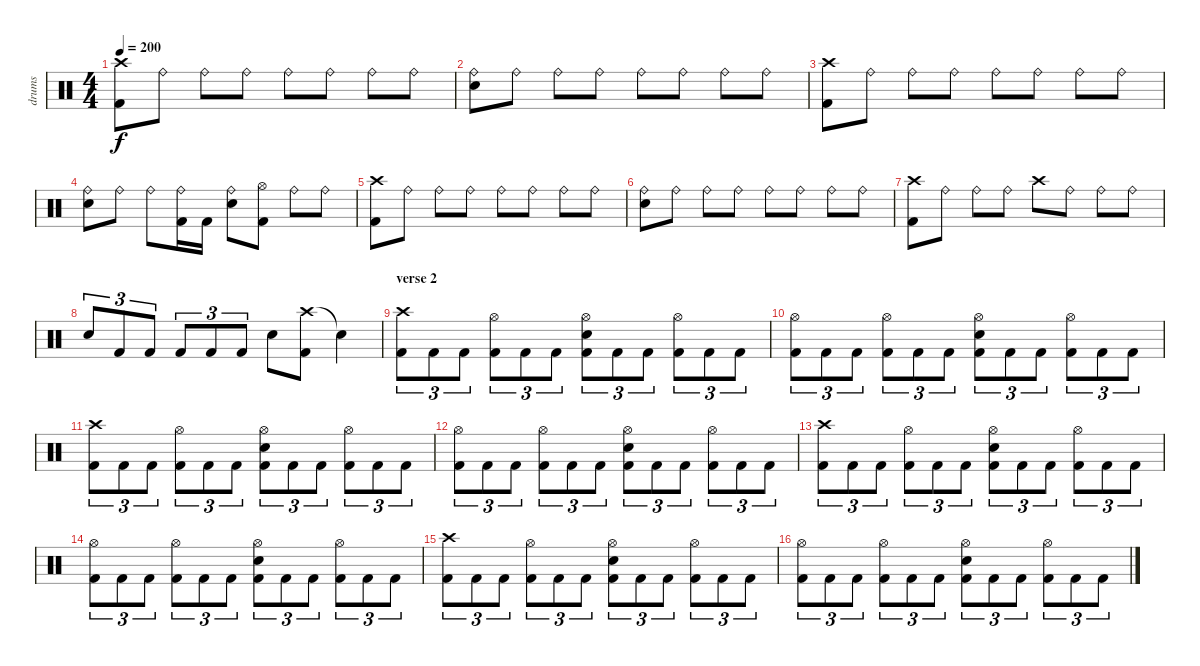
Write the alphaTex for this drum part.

\track ("drums" "drums") {instrument percussion}
\staff {score}
\articulation defaults
\ts (4 4)
\tempo 200
\clef neutral
\ks c
("Crash high (hit)" "Kick (hit) 2").8{dy f} "Ride (bell)".8 "Ride (bell)".8 "Ride (bell)".8 "Ride (bell)".8 "Ride (bell)".8 "Ride (bell)".8 "Ride (bell)".8 |
("Ride (bell)" "Electric Snare (hit)").8 "Ride (bell)".8 "Ride (bell)".8 "Ride (bell)".8 "Ride (bell)".8 "Ride (bell)".8 "Ride (bell)".8 "Ride (bell)".8 |
("Crash high (hit)" "Kick (hit) 2").8 "Ride (bell)".8 "Ride (bell)".8 "Ride (bell)".8 "Ride (bell)".8 "Ride (bell)".8 "Ride (bell)".8 "Ride (bell)".8 |
("Ride (bell)" "Electric Snare (hit)").8 "Ride (bell)".8 "Ride (bell)".8 ("Ride (bell)" "Kick (hit) 2").16 "Kick (hit) 2".16 ("Ride (bell)" "Electric Snare (hit)").8 ("Hi-Hat (open)" "Kick (hit) 2").8 "Ride (bell)".8 "Ride (bell)".8 |
("Crash high (hit)" "Kick (hit) 2").8 "Ride (bell)".8 "Ride (bell)".8 "Ride (bell)".8 "Ride (bell)".8 "Ride (bell)".8 "Ride (bell)".8 "Ride (bell)".8 |
("Ride (bell)" "Electric Snare (hit)").8 "Ride (bell)".8 "Ride (bell)".8 "Ride (bell)".8 "Ride (bell)".8 "Ride (bell)".8 "Ride (bell)".8 "Ride (bell)".8 |
("Crash high (hit)" "Kick (hit) 2").8 "Ride (bell)".8 "Ride (bell)".8 "Ride (bell)".8 "Crash high (hit)".8 "Ride (bell)".8 "Ride (bell)".8 "Ride (bell)".8 |
"Electric Snare (hit)".8{tu (3 2)} "Kick (hit) 2".8{tu (3 2)} "Kick (hit) 2".8{tu (3 2)} "Kick (hit) 2".8{tu (3 2)} "Kick (hit) 2".8{tu (3 2)} "Kick (hit) 2".8{tu (3 2)} "Electric Snare (hit)".8 ("Crash high (hit)" "Kick (hit) 2").8 "Snare (hit)"{t}.4 |
\section ("" "verse 2")
("Crash high (hit)" "Kick (hit) 2").8{tu (3 2)} "Kick (hit) 2".8{tu (3 2)} "Kick (hit) 2".8{tu (3 2)} ("Hi-Hat (open)" "Kick (hit) 2").8{tu (3 2)} "Kick (hit) 2".8{tu (3 2)} "Kick (hit) 2".8{tu (3 2)} ("Hi-Hat (open)" "Electric Snare (hit)" "Kick (hit) 2").8{tu (3 2)} "Kick (hit) 2".8{tu (3 2)} "Kick (hit) 2".8{tu (3 2)} ("Hi-Hat (open)" "Kick (hit) 2").8{tu (3 2)} "Kick (hit) 2".8{tu (3 2)} "Kick (hit) 2".8{tu (3 2)} |
("Hi-Hat (open)" "Kick (hit) 2").8{tu (3 2)} "Kick (hit) 2".8{tu (3 2)} "Kick (hit) 2".8{tu (3 2)} ("Hi-Hat (open)" "Kick (hit) 2").8{tu (3 2)} "Kick (hit) 2".8{tu (3 2)} "Kick (hit) 2".8{tu (3 2)} ("Hi-Hat (open)" "Electric Snare (hit)" "Kick (hit) 2").8{tu (3 2)} "Kick (hit) 2".8{tu (3 2)} "Kick (hit) 2".8{tu (3 2)} ("Hi-Hat (open)" "Kick (hit) 2").8{tu (3 2)} "Kick (hit) 2".8{tu (3 2)} "Kick (hit) 2".8{tu (3 2)} |
("Crash high (hit)" "Kick (hit) 2").8{tu (3 2)} "Kick (hit) 2".8{tu (3 2)} "Kick (hit) 2".8{tu (3 2)} ("Hi-Hat (open)" "Kick (hit) 2").8{tu (3 2)} "Kick (hit) 2".8{tu (3 2)} "Kick (hit) 2".8{tu (3 2)} ("Hi-Hat (open)" "Electric Snare (hit)" "Kick (hit) 2").8{tu (3 2)} "Kick (hit) 2".8{tu (3 2)} "Kick (hit) 2".8{tu (3 2)} ("Hi-Hat (open)" "Kick (hit) 2").8{tu (3 2)} "Kick (hit) 2".8{tu (3 2)} "Kick (hit) 2".8{tu (3 2)} |
("Hi-Hat (open)" "Kick (hit) 2").8{tu (3 2)} "Kick (hit) 2".8{tu (3 2)} "Kick (hit) 2".8{tu (3 2)} ("Hi-Hat (open)" "Kick (hit) 2").8{tu (3 2)} "Kick (hit) 2".8{tu (3 2)} "Kick (hit) 2".8{tu (3 2)} ("Hi-Hat (open)" "Electric Snare (hit)" "Kick (hit) 2").8{tu (3 2)} "Kick (hit) 2".8{tu (3 2)} "Kick (hit) 2".8{tu (3 2)} ("Hi-Hat (open)" "Kick (hit) 2").8{tu (3 2)} "Kick (hit) 2".8{tu (3 2)} "Kick (hit) 2".8{tu (3 2)} |
("Crash high (hit)" "Kick (hit) 2").8{tu (3 2)} "Kick (hit) 2".8{tu (3 2)} "Kick (hit) 2".8{tu (3 2)} ("Hi-Hat (open)" "Kick (hit) 2").8{tu (3 2)} "Kick (hit) 2".8{tu (3 2)} "Kick (hit) 2".8{tu (3 2)} ("Hi-Hat (open)" "Electric Snare (hit)" "Kick (hit) 2").8{tu (3 2)} "Kick (hit) 2".8{tu (3 2)} "Kick (hit) 2".8{tu (3 2)} ("Hi-Hat (open)" "Kick (hit) 2").8{tu (3 2)} "Kick (hit) 2".8{tu (3 2)} "Kick (hit) 2".8{tu (3 2)} |
("Hi-Hat (open)" "Kick (hit) 2").8{tu (3 2)} "Kick (hit) 2".8{tu (3 2)} "Kick (hit) 2".8{tu (3 2)} ("Hi-Hat (open)" "Kick (hit) 2").8{tu (3 2)} "Kick (hit) 2".8{tu (3 2)} "Kick (hit) 2".8{tu (3 2)} ("Hi-Hat (open)" "Electric Snare (hit)" "Kick (hit) 2").8{tu (3 2)} "Kick (hit) 2".8{tu (3 2)} "Kick (hit) 2".8{tu (3 2)} ("Hi-Hat (open)" "Kick (hit) 2").8{tu (3 2)} "Kick (hit) 2".8{tu (3 2)} "Kick (hit) 2".8{tu (3 2)} |
("Crash high (hit)" "Kick (hit) 2").8{tu (3 2)} "Kick (hit) 2".8{tu (3 2)} "Kick (hit) 2".8{tu (3 2)} ("Hi-Hat (open)" "Kick (hit) 2").8{tu (3 2)} "Kick (hit) 2".8{tu (3 2)} "Kick (hit) 2".8{tu (3 2)} ("Hi-Hat (open)" "Electric Snare (hit)" "Kick (hit) 2").8{tu (3 2)} "Kick (hit) 2".8{tu (3 2)} "Kick (hit) 2".8{tu (3 2)} ("Hi-Hat (open)" "Kick (hit) 2").8{tu (3 2)} "Kick (hit) 2".8{tu (3 2)} "Kick (hit) 2".8{tu (3 2)} |
("Hi-Hat (open)" "Kick (hit) 2").8{tu (3 2)} "Kick (hit) 2".8{tu (3 2)} "Kick (hit) 2".8{tu (3 2)} ("Hi-Hat (open)" "Kick (hit) 2").8{tu (3 2)} "Kick (hit) 2".8{tu (3 2)} "Kick (hit) 2".8{tu (3 2)} ("Hi-Hat (open)" "Electric Snare (hit)" "Kick (hit) 2").8{tu (3 2)} "Kick (hit) 2".8{tu (3 2)} "Kick (hit) 2".8{tu (3 2)} ("Hi-Hat (open)" "Kick (hit) 2").8{tu (3 2)} "Kick (hit) 2".8{tu (3 2)} "Kick (hit) 2".8{tu (3 2)}
